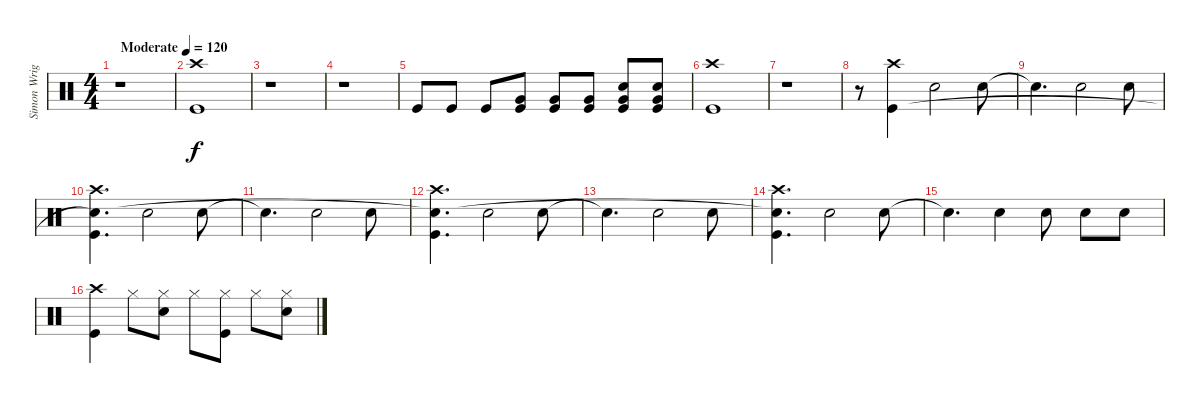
\track ("Simon Wright" "Simon Wrig") {instrument percussion}
\staff {score}
\articulation defaults
\ts (4 4)
\tempo (120 "Moderate")
\clef neutral
\ks c
r.1{dy f} |
("Crash high (hit)" "Kick (hit)").1 |
r.1 |
r.1 |
"Kick (hit)".8 "Kick (hit)".8 "Kick (hit)".8 ("Very Low Tom (hit)" "Kick (hit)").8 ("Very Low Tom (hit)" "Kick (hit)").8 ("Very Low Tom (hit)" "Kick (hit)").8 ("Electric Snare (hit)" "Very Low Tom (hit)" "Kick (hit)").8 ("Electric Snare (hit)" "Very Low Tom (hit)" "Kick (hit)").8 |
("Crash high (hit)" "Kick (hit)").1 |
r.1 |
r.8 ("Crash high (hit)" "Kick (hit)").4 "Electric Snare (hit)".2 "Electric Snare (hit)".8 |
"Snare (hit)"{t}.4{d} "Electric Snare (hit)".2 "Electric Snare (hit)".8 |
("Crash high (hit)" "Snare (hit)"{t} "Kick (hit)").4{d} "Electric Snare (hit)".2 "Electric Snare (hit)".8 |
"Snare (hit)"{t}.4{d} "Electric Snare (hit)".2 "Electric Snare (hit)".8 |
("Crash high (hit)" "Snare (hit)"{t} "Kick (hit)").4{d} "Electric Snare (hit)".2 "Electric Snare (hit)".8 |
"Snare (hit)"{t}.4{d} "Electric Snare (hit)".2 "Electric Snare (hit)".8 |
("Crash high (hit)" "Snare (hit)"{t} "Kick (hit)").4{d} "Electric Snare (hit)".2 "Electric Snare (hit)".8 |
"Snare (hit)"{t}.4{d} "Electric Snare (hit)".4 "Electric Snare (hit)".8 "Electric Snare (hit)".8 "Electric Snare (hit)".8 |
("Crash high (hit)" "Kick (hit)").4 "Hi-Hat (closed)".8 ("Hi-Hat (closed)" "Electric Snare (hit)").8 "Hi-Hat (closed)".8 ("Hi-Hat (closed)" "Kick (hit)").8 "Hi-Hat (closed)".8 ("Hi-Hat (closed)" "Electric Snare (hit)").8
